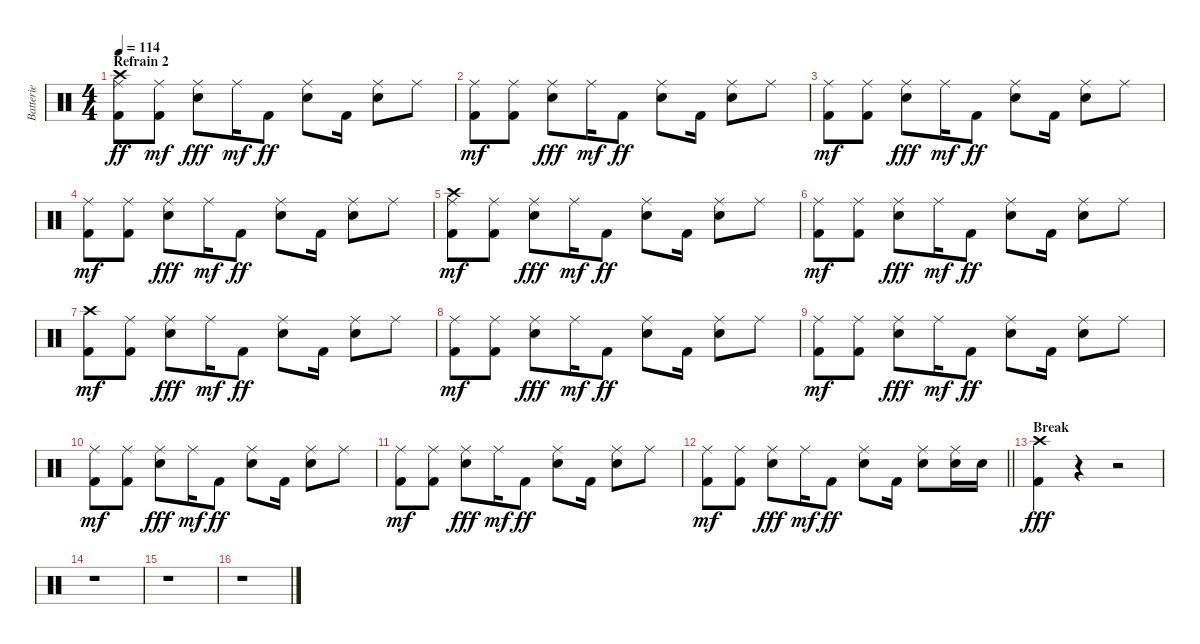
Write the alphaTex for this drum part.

\track ("Batterie" "Batterie") {instrument percussion}
\staff {score}
\articulation defaults
\ts (4 4)
\section ("" "Refrain 2")
\tempo 114
\clef neutral
\ks c
("Ride (middle)" "Crash high (hit)" "Kick (hit) 2").8{dy ff} ("Ride (middle)" "Kick (hit) 2").8{dy mf} ("Ride (middle)" "Snare (hit) 2").8{dy fff} "Ride (middle)".16{dy mf} "Kick (hit) 2".8{dy ff} ("Ride (middle)" "Snare (hit) 2").8 "Kick (hit) 2".16 ("Ride (middle)" "Snare (hit) 2").8 "Ride (middle)".8 |
("Ride (middle)" "Kick (hit) 2").8{dy mf} ("Ride (middle)" "Kick (hit) 2").8 ("Ride (middle)" "Snare (hit) 2").8{dy fff} "Ride (middle)".16{dy mf} "Kick (hit) 2".8{dy ff} ("Ride (middle)" "Snare (hit) 2").8 "Kick (hit) 2".16 ("Ride (middle)" "Snare (hit) 2").8 "Ride (middle)".8 |
("Ride (middle)" "Kick (hit) 2").8{dy mf} ("Ride (middle)" "Kick (hit) 2").8 ("Ride (middle)" "Snare (hit) 2").8{dy fff} "Ride (middle)".16{dy mf} "Kick (hit) 2".8{dy ff} ("Ride (middle)" "Snare (hit) 2").8 "Kick (hit) 2".16 ("Ride (middle)" "Snare (hit) 2").8 "Ride (middle)".8 |
("Ride (middle)" "Kick (hit) 2").8{dy mf} ("Ride (middle)" "Kick (hit) 2").8 ("Ride (middle)" "Snare (hit) 2").8{dy fff} "Ride (middle)".16{dy mf} "Kick (hit) 2".8{dy ff} ("Ride (middle)" "Snare (hit) 2").8 "Kick (hit) 2".16 ("Ride (middle)" "Snare (hit) 2").8 "Ride (middle)".8 |
("Ride (middle)" "Crash high (hit)" "Kick (hit) 2").8{dy mf} ("Ride (middle)" "Kick (hit) 2").8 ("Ride (middle)" "Snare (hit) 2").8{dy fff} "Ride (middle)".16{dy mf} "Kick (hit) 2".8{dy ff} ("Ride (middle)" "Snare (hit) 2").8 "Kick (hit) 2".16 ("Ride (middle)" "Snare (hit) 2").8 "Ride (middle)".8 |
("Ride (middle)" "Kick (hit) 2").8{dy mf} ("Ride (middle)" "Kick (hit) 2").8 ("Ride (middle)" "Snare (hit) 2").8{dy fff} "Ride (middle)".16{dy mf} "Kick (hit) 2".8{dy ff} ("Ride (middle)" "Snare (hit) 2").8 "Kick (hit) 2".16 ("Ride (middle)" "Snare (hit) 2").8 "Ride (middle)".8 |
("Crash high (hit)" "Kick (hit) 2").8{dy mf} ("Ride (middle)" "Kick (hit) 2").8 ("Ride (middle)" "Snare (hit) 2").8{dy fff} "Ride (middle)".16{dy mf} "Kick (hit) 2".8{dy ff} ("Ride (middle)" "Snare (hit) 2").8 "Kick (hit) 2".16 ("Ride (middle)" "Snare (hit) 2").8 "Ride (middle)".8 |
("Ride (middle)" "Kick (hit) 2").8{dy mf} ("Ride (middle)" "Kick (hit) 2").8 ("Ride (middle)" "Snare (hit) 2").8{dy fff} "Ride (middle)".16{dy mf} "Kick (hit) 2".8{dy ff} ("Ride (middle)" "Snare (hit) 2").8 "Kick (hit) 2".16 ("Ride (middle)" "Snare (hit) 2").8 "Ride (middle)".8 |
("Ride (middle)" "Kick (hit) 2").8{dy mf} ("Ride (middle)" "Kick (hit) 2").8 ("Ride (middle)" "Snare (hit) 2").8{dy fff} "Ride (middle)".16{dy mf} "Kick (hit) 2".8{dy ff} ("Ride (middle)" "Snare (hit) 2").8 "Kick (hit) 2".16 ("Ride (middle)" "Snare (hit) 2").8 "Ride (middle)".8 |
("Ride (middle)" "Kick (hit) 2").8{dy mf} ("Ride (middle)" "Kick (hit) 2").8 ("Ride (middle)" "Snare (hit) 2").8{dy fff} "Ride (middle)".16{dy mf} "Kick (hit) 2".8{dy ff} ("Ride (middle)" "Snare (hit) 2").8 "Kick (hit) 2".16 ("Ride (middle)" "Snare (hit) 2").8 "Ride (middle)".8 |
("Ride (middle)" "Kick (hit) 2").8{dy mf} ("Ride (middle)" "Kick (hit) 2").8 ("Ride (middle)" "Snare (hit) 2").8{dy fff} "Ride (middle)".16{dy mf} "Kick (hit) 2".8{dy ff} ("Ride (middle)" "Snare (hit) 2").8 "Kick (hit) 2".16 ("Ride (middle)" "Snare (hit) 2").8 "Ride (middle)".8 |
\barLineRight lightlight
("Ride (middle)" "Kick (hit) 2").8{dy mf} ("Ride (middle)" "Kick (hit) 2").8 ("Ride (middle)" "Snare (hit) 2").8{dy fff} "Ride (middle)".16{dy mf} "Kick (hit) 2".8{dy ff} ("Ride (middle)" "Snare (hit) 2").8 "Kick (hit) 2".16 ("Ride (middle)" "Snare (hit) 2").8 ("Ride (middle)" "Snare (hit) 2").16 "Snare (hit) 2".16 |
\section ("" "Break")
("Crash high (hit)" "Kick (hit) 2").4{dy fff} r.4 r.2 |
r.1 |
r.1 |
r.1
